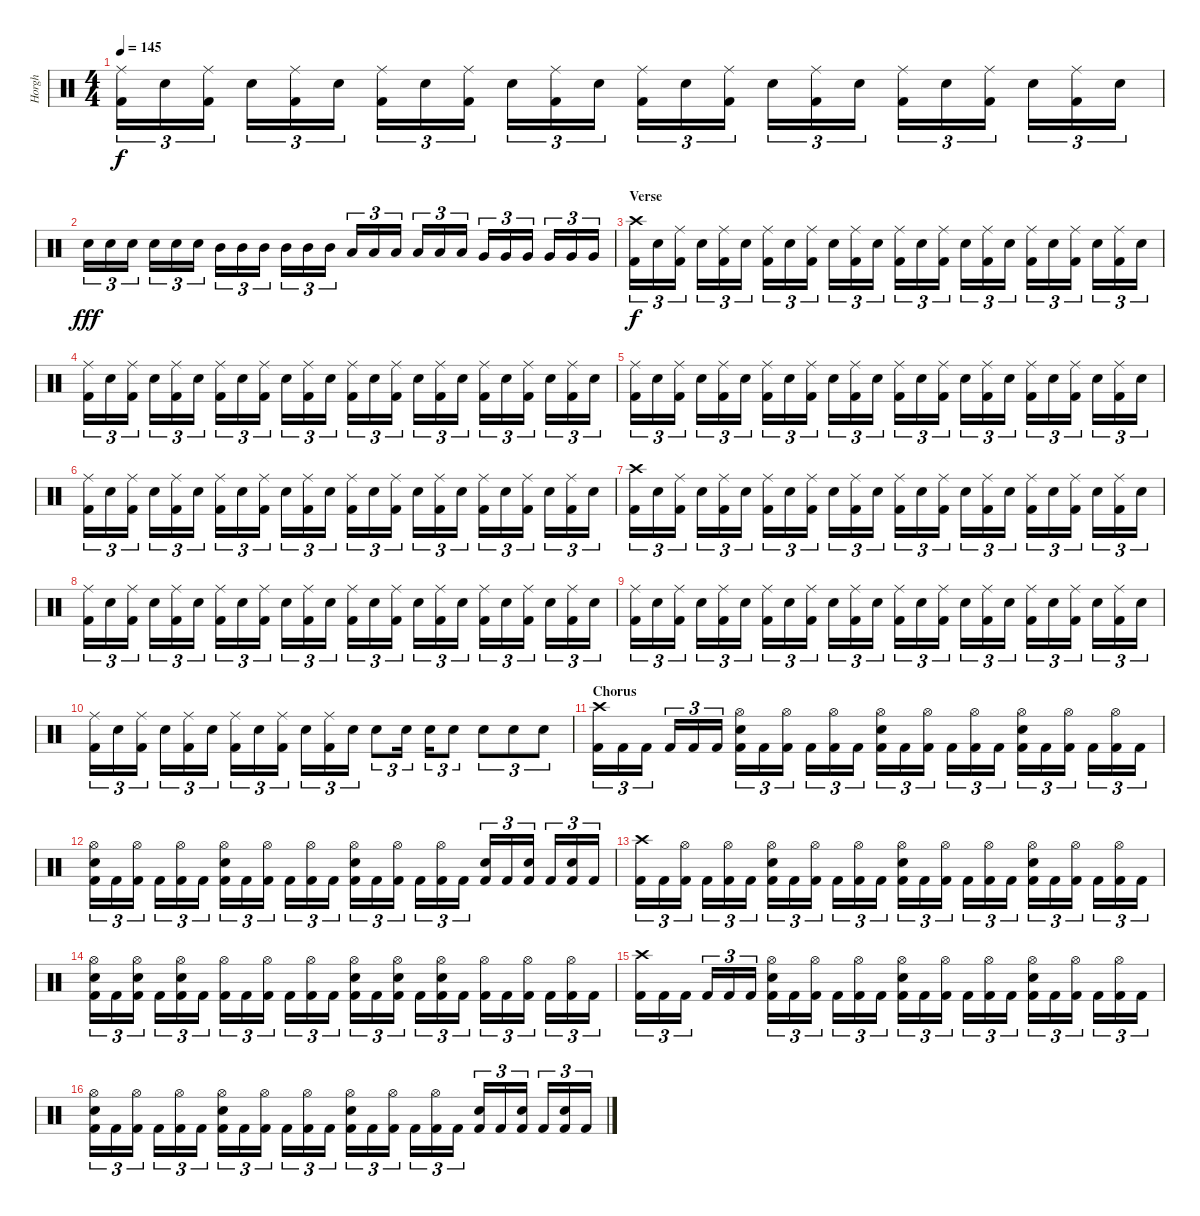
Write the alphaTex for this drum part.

\track ("Horgh" "Horgh") {instrument percussion}
\staff {score}
\articulation defaults
\ts (4 4)
\tempo 145
\clef neutral
\ks c
("Ride (middle)" "Kick (hit) 2").16{tu (3 2) dy f} "Electric Snare (hit)".16{tu (3 2)} ("Ride (middle)" "Kick (hit) 2").16{tu (3 2)} "Electric Snare (hit)".16{tu (3 2)} ("Ride (middle)" "Kick (hit) 2").16{tu (3 2)} "Electric Snare (hit)".16{tu (3 2)} ("Ride (middle)" "Kick (hit) 2").16{tu (3 2)} "Electric Snare (hit)".16{tu (3 2)} ("Ride (middle)" "Kick (hit) 2").16{tu (3 2)} "Electric Snare (hit)".16{tu (3 2)} ("Ride (middle)" "Kick (hit) 2").16{tu (3 2)} "Electric Snare (hit)".16{tu (3 2)} ("Ride (middle)" "Kick (hit) 2").16{tu (3 2)} "Electric Snare (hit)".16{tu (3 2)} ("Ride (middle)" "Kick (hit) 2").16{tu (3 2)} "Electric Snare (hit)".16{tu (3 2)} ("Ride (middle)" "Kick (hit) 2").16{tu (3 2)} "Electric Snare (hit)".16{tu (3 2)} ("Ride (middle)" "Kick (hit) 2").16{tu (3 2)} "Electric Snare (hit)".16{tu (3 2)} ("Ride (middle)" "Kick (hit) 2").16{tu (3 2)} "Electric Snare (hit)".16{tu (3 2)} ("Ride (middle)" "Kick (hit) 2").16{tu (3 2)} "Electric Snare (hit)".16{tu (3 2)} |
"Electric Snare (hit)".16{tu (3 2) dy fff} "Electric Snare (hit)".16{tu (3 2)} "Electric Snare (hit)".16{tu (3 2)} "Electric Snare (hit)".16{tu (3 2)} "Electric Snare (hit)".16{tu (3 2)} "Electric Snare (hit)".16{tu (3 2)} "Mid Tom (hit)".16{tu (3 2)} "Mid Tom (hit)".16{tu (3 2)} "Mid Tom (hit)".16{tu (3 2)} "Mid Tom (hit)".16{tu (3 2)} "Mid Tom (hit)".16{tu (3 2)} "Mid Tom (hit)".16{tu (3 2)} "Low Tom (hit)".16{tu (3 2)} "Low Tom (hit)".16{tu (3 2)} "Low Tom (hit)".16{tu (3 2)} "Low Tom (hit)".16{tu (3 2)} "Low Tom (hit)".16{tu (3 2)} "Low Tom (hit)".16{tu (3 2)} "Very Low Tom (hit)".16{tu (3 2)} "Very Low Tom (hit)".16{tu (3 2)} "Very Low Tom (hit)".16{tu (3 2)} "Very Low Tom (hit)".16{tu (3 2)} "Very Low Tom (hit)".16{tu (3 2)} "Very Low Tom (hit)".16{tu (3 2)} |
\section ("" "Verse")
("Crash high (hit)" "Kick (hit) 2").16{tu (3 2) dy f} "Electric Snare (hit)".16{tu (3 2)} ("Ride (middle)" "Kick (hit) 2").16{tu (3 2)} "Electric Snare (hit)".16{tu (3 2)} ("Ride (middle)" "Kick (hit) 2").16{tu (3 2)} "Electric Snare (hit)".16{tu (3 2)} ("Ride (middle)" "Kick (hit) 2").16{tu (3 2)} "Electric Snare (hit)".16{tu (3 2)} ("Ride (middle)" "Kick (hit) 2").16{tu (3 2)} "Electric Snare (hit)".16{tu (3 2)} ("Ride (middle)" "Kick (hit) 2").16{tu (3 2)} "Electric Snare (hit)".16{tu (3 2)} ("Ride (middle)" "Kick (hit) 2").16{tu (3 2)} "Electric Snare (hit)".16{tu (3 2)} ("Ride (middle)" "Kick (hit) 2").16{tu (3 2)} "Electric Snare (hit)".16{tu (3 2)} ("Ride (middle)" "Kick (hit) 2").16{tu (3 2)} "Electric Snare (hit)".16{tu (3 2)} ("Ride (middle)" "Kick (hit) 2").16{tu (3 2)} "Electric Snare (hit)".16{tu (3 2)} ("Ride (middle)" "Kick (hit) 2").16{tu (3 2)} "Electric Snare (hit)".16{tu (3 2)} ("Ride (middle)" "Kick (hit) 2").16{tu (3 2)} "Electric Snare (hit)".16{tu (3 2)} |
("Ride (middle)" "Kick (hit) 2").16{tu (3 2)} "Electric Snare (hit)".16{tu (3 2)} ("Ride (middle)" "Kick (hit) 2").16{tu (3 2)} "Electric Snare (hit)".16{tu (3 2)} ("Ride (middle)" "Kick (hit) 2").16{tu (3 2)} "Electric Snare (hit)".16{tu (3 2)} ("Ride (middle)" "Kick (hit) 2").16{tu (3 2)} "Electric Snare (hit)".16{tu (3 2)} ("Ride (middle)" "Kick (hit) 2").16{tu (3 2)} "Electric Snare (hit)".16{tu (3 2)} ("Ride (middle)" "Kick (hit) 2").16{tu (3 2)} "Electric Snare (hit)".16{tu (3 2)} ("Ride (middle)" "Kick (hit) 2").16{tu (3 2)} "Electric Snare (hit)".16{tu (3 2)} ("Ride (middle)" "Kick (hit) 2").16{tu (3 2)} "Electric Snare (hit)".16{tu (3 2)} ("Ride (middle)" "Kick (hit) 2").16{tu (3 2)} "Electric Snare (hit)".16{tu (3 2)} ("Ride (middle)" "Kick (hit) 2").16{tu (3 2)} "Electric Snare (hit)".16{tu (3 2)} ("Ride (middle)" "Kick (hit) 2").16{tu (3 2)} "Electric Snare (hit)".16{tu (3 2)} ("Ride (middle)" "Kick (hit) 2").16{tu (3 2)} "Electric Snare (hit)".16{tu (3 2)} |
("Ride (middle)" "Kick (hit) 2").16{tu (3 2)} "Electric Snare (hit)".16{tu (3 2)} ("Ride (middle)" "Kick (hit) 2").16{tu (3 2)} "Electric Snare (hit)".16{tu (3 2)} ("Ride (middle)" "Kick (hit) 2").16{tu (3 2)} "Electric Snare (hit)".16{tu (3 2)} ("Ride (middle)" "Kick (hit) 2").16{tu (3 2)} "Electric Snare (hit)".16{tu (3 2)} ("Ride (middle)" "Kick (hit) 2").16{tu (3 2)} "Electric Snare (hit)".16{tu (3 2)} ("Ride (middle)" "Kick (hit) 2").16{tu (3 2)} "Electric Snare (hit)".16{tu (3 2)} ("Ride (middle)" "Kick (hit) 2").16{tu (3 2)} "Electric Snare (hit)".16{tu (3 2)} ("Ride (middle)" "Kick (hit) 2").16{tu (3 2)} "Electric Snare (hit)".16{tu (3 2)} ("Ride (middle)" "Kick (hit) 2").16{tu (3 2)} "Electric Snare (hit)".16{tu (3 2)} ("Ride (middle)" "Kick (hit) 2").16{tu (3 2)} "Electric Snare (hit)".16{tu (3 2)} ("Ride (middle)" "Kick (hit) 2").16{tu (3 2)} "Electric Snare (hit)".16{tu (3 2)} ("Ride (middle)" "Kick (hit) 2").16{tu (3 2)} "Electric Snare (hit)".16{tu (3 2)} |
("Ride (middle)" "Kick (hit) 2").16{tu (3 2)} "Electric Snare (hit)".16{tu (3 2)} ("Ride (middle)" "Kick (hit) 2").16{tu (3 2)} "Electric Snare (hit)".16{tu (3 2)} ("Ride (middle)" "Kick (hit) 2").16{tu (3 2)} "Electric Snare (hit)".16{tu (3 2)} ("Ride (middle)" "Kick (hit) 2").16{tu (3 2)} "Electric Snare (hit)".16{tu (3 2)} ("Ride (middle)" "Kick (hit) 2").16{tu (3 2)} "Electric Snare (hit)".16{tu (3 2)} ("Ride (middle)" "Kick (hit) 2").16{tu (3 2)} "Electric Snare (hit)".16{tu (3 2)} ("Ride (middle)" "Kick (hit) 2").16{tu (3 2)} "Electric Snare (hit)".16{tu (3 2)} ("Ride (middle)" "Kick (hit) 2").16{tu (3 2)} "Electric Snare (hit)".16{tu (3 2)} ("Ride (middle)" "Kick (hit) 2").16{tu (3 2)} "Electric Snare (hit)".16{tu (3 2)} ("Ride (middle)" "Kick (hit) 2").16{tu (3 2)} "Electric Snare (hit)".16{tu (3 2)} ("Ride (middle)" "Kick (hit) 2").16{tu (3 2)} "Electric Snare (hit)".16{tu (3 2)} ("Ride (middle)" "Kick (hit) 2").16{tu (3 2)} "Electric Snare (hit)".16{tu (3 2)} |
("Crash high (hit)" "Kick (hit) 2").16{tu (3 2)} "Electric Snare (hit)".16{tu (3 2)} ("Ride (middle)" "Kick (hit) 2").16{tu (3 2)} "Electric Snare (hit)".16{tu (3 2)} ("Ride (middle)" "Kick (hit) 2").16{tu (3 2)} "Electric Snare (hit)".16{tu (3 2)} ("Ride (middle)" "Kick (hit) 2").16{tu (3 2)} "Electric Snare (hit)".16{tu (3 2)} ("Ride (middle)" "Kick (hit) 2").16{tu (3 2)} "Electric Snare (hit)".16{tu (3 2)} ("Ride (middle)" "Kick (hit) 2").16{tu (3 2)} "Electric Snare (hit)".16{tu (3 2)} ("Ride (middle)" "Kick (hit) 2").16{tu (3 2)} "Electric Snare (hit)".16{tu (3 2)} ("Ride (middle)" "Kick (hit) 2").16{tu (3 2)} "Electric Snare (hit)".16{tu (3 2)} ("Ride (middle)" "Kick (hit) 2").16{tu (3 2)} "Electric Snare (hit)".16{tu (3 2)} ("Ride (middle)" "Kick (hit) 2").16{tu (3 2)} "Electric Snare (hit)".16{tu (3 2)} ("Ride (middle)" "Kick (hit) 2").16{tu (3 2)} "Electric Snare (hit)".16{tu (3 2)} ("Ride (middle)" "Kick (hit) 2").16{tu (3 2)} "Electric Snare (hit)".16{tu (3 2)} |
("Ride (middle)" "Kick (hit) 2").16{tu (3 2)} "Electric Snare (hit)".16{tu (3 2)} ("Ride (middle)" "Kick (hit) 2").16{tu (3 2)} "Electric Snare (hit)".16{tu (3 2)} ("Ride (middle)" "Kick (hit) 2").16{tu (3 2)} "Electric Snare (hit)".16{tu (3 2)} ("Ride (middle)" "Kick (hit) 2").16{tu (3 2)} "Electric Snare (hit)".16{tu (3 2)} ("Ride (middle)" "Kick (hit) 2").16{tu (3 2)} "Electric Snare (hit)".16{tu (3 2)} ("Ride (middle)" "Kick (hit) 2").16{tu (3 2)} "Electric Snare (hit)".16{tu (3 2)} ("Ride (middle)" "Kick (hit) 2").16{tu (3 2)} "Electric Snare (hit)".16{tu (3 2)} ("Ride (middle)" "Kick (hit) 2").16{tu (3 2)} "Electric Snare (hit)".16{tu (3 2)} ("Ride (middle)" "Kick (hit) 2").16{tu (3 2)} "Electric Snare (hit)".16{tu (3 2)} ("Ride (middle)" "Kick (hit) 2").16{tu (3 2)} "Electric Snare (hit)".16{tu (3 2)} ("Ride (middle)" "Kick (hit) 2").16{tu (3 2)} "Electric Snare (hit)".16{tu (3 2)} ("Ride (middle)" "Kick (hit) 2").16{tu (3 2)} "Electric Snare (hit)".16{tu (3 2)} |
("Ride (middle)" "Kick (hit) 2").16{tu (3 2)} "Electric Snare (hit)".16{tu (3 2)} ("Ride (middle)" "Kick (hit) 2").16{tu (3 2)} "Electric Snare (hit)".16{tu (3 2)} ("Ride (middle)" "Kick (hit) 2").16{tu (3 2)} "Electric Snare (hit)".16{tu (3 2)} ("Ride (middle)" "Kick (hit) 2").16{tu (3 2)} "Electric Snare (hit)".16{tu (3 2)} ("Ride (middle)" "Kick (hit) 2").16{tu (3 2)} "Electric Snare (hit)".16{tu (3 2)} ("Ride (middle)" "Kick (hit) 2").16{tu (3 2)} "Electric Snare (hit)".16{tu (3 2)} ("Ride (middle)" "Kick (hit) 2").16{tu (3 2)} "Electric Snare (hit)".16{tu (3 2)} ("Ride (middle)" "Kick (hit) 2").16{tu (3 2)} "Electric Snare (hit)".16{tu (3 2)} ("Ride (middle)" "Kick (hit) 2").16{tu (3 2)} "Electric Snare (hit)".16{tu (3 2)} ("Ride (middle)" "Kick (hit) 2").16{tu (3 2)} "Electric Snare (hit)".16{tu (3 2)} ("Ride (middle)" "Kick (hit) 2").16{tu (3 2)} "Electric Snare (hit)".16{tu (3 2)} ("Ride (middle)" "Kick (hit) 2").16{tu (3 2)} "Electric Snare (hit)".16{tu (3 2)} |
("Ride (middle)" "Kick (hit) 2").16{tu (3 2)} "Electric Snare (hit)".16{tu (3 2)} ("Ride (middle)" "Kick (hit) 2").16{tu (3 2)} "Electric Snare (hit)".16{tu (3 2)} ("Ride (middle)" "Kick (hit) 2").16{tu (3 2)} "Electric Snare (hit)".16{tu (3 2)} ("Ride (middle)" "Kick (hit) 2").16{tu (3 2)} "Electric Snare (hit)".16{tu (3 2)} ("Ride (middle)" "Kick (hit) 2").16{tu (3 2)} "Electric Snare (hit)".16{tu (3 2)} ("Ride (middle)" "Kick (hit) 2").16{tu (3 2)} "Electric Snare (hit)".16{tu (3 2)} "Electric Snare (hit)".8{tu (3 2)} "Electric Snare (hit)".16{tu (3 2)} "Electric Snare (hit)".16{tu (3 2)} "Electric Snare (hit)".8{tu (3 2)} "Electric Snare (hit)".8{tu (3 2)} "Electric Snare (hit)".8{tu (3 2)} "Electric Snare (hit)".8{tu (3 2)} |
\section ("" "Chorus")
("Crash high (hit)" "Kick (hit) 2").16{tu (3 2)} "Kick (hit) 2".16{tu (3 2)} "Kick (hit) 2".16{tu (3 2)} "Kick (hit) 2".16{tu (3 2)} "Kick (hit) 2".16{tu (3 2)} "Kick (hit) 2".16{tu (3 2)} ("Hi-Hat (open)" "Electric Snare (hit)" "Kick (hit) 2").16{tu (3 2)} "Kick (hit) 2".16{tu (3 2)} ("Hi-Hat (open)" "Kick (hit) 2").16{tu (3 2)} "Kick (hit) 2".16{tu (3 2)} ("Hi-Hat (open)" "Kick (hit) 2").16{tu (3 2)} "Kick (hit) 2".16{tu (3 2)} ("Hi-Hat (open)" "Electric Snare (hit)" "Kick (hit) 2").16{tu (3 2)} "Kick (hit) 2".16{tu (3 2)} ("Hi-Hat (open)" "Kick (hit) 2").16{tu (3 2)} "Kick (hit) 2".16{tu (3 2)} ("Hi-Hat (open)" "Kick (hit) 2").16{tu (3 2)} "Kick (hit) 2".16{tu (3 2)} ("Hi-Hat (open)" "Electric Snare (hit)" "Kick (hit) 2").16{tu (3 2)} "Kick (hit) 2".16{tu (3 2)} ("Hi-Hat (open)" "Kick (hit) 2").16{tu (3 2)} "Kick (hit) 2".16{tu (3 2)} ("Hi-Hat (open)" "Kick (hit) 2").16{tu (3 2)} "Kick (hit) 2".16{tu (3 2)} |
("Hi-Hat (open)" "Electric Snare (hit)" "Kick (hit) 2").16{tu (3 2)} "Kick (hit) 2".16{tu (3 2)} ("Hi-Hat (open)" "Kick (hit) 2").16{tu (3 2)} "Kick (hit) 2".16{tu (3 2)} ("Hi-Hat (open)" "Kick (hit) 2").16{tu (3 2)} "Kick (hit) 2".16{tu (3 2)} ("Hi-Hat (open)" "Electric Snare (hit)" "Kick (hit) 2").16{tu (3 2)} "Kick (hit) 2".16{tu (3 2)} ("Hi-Hat (open)" "Kick (hit) 2").16{tu (3 2)} "Kick (hit) 2".16{tu (3 2)} ("Hi-Hat (open)" "Kick (hit) 2").16{tu (3 2)} "Kick (hit) 2".16{tu (3 2)} ("Hi-Hat (open)" "Electric Snare (hit)" "Kick (hit) 2").16{tu (3 2)} "Kick (hit) 2".16{tu (3 2)} ("Hi-Hat (open)" "Kick (hit) 2").16{tu (3 2)} "Kick (hit) 2".16{tu (3 2)} ("Hi-Hat (open)" "Kick (hit) 2").16{tu (3 2)} "Kick (hit) 2".16{tu (3 2)} ("Electric Snare (hit)" "Kick (hit) 2").16{tu (3 2)} "Kick (hit) 2".16{tu (3 2)} ("Electric Snare (hit)" "Kick (hit) 2").16{tu (3 2)} "Kick (hit) 2".16{tu (3 2)} ("Electric Snare (hit)" "Kick (hit) 2").16{tu (3 2)} "Kick (hit) 2".16{tu (3 2)} |
("Crash high (hit)" "Kick (hit) 2").16{tu (3 2)} "Kick (hit) 2".16{tu (3 2)} ("Hi-Hat (open)" "Kick (hit) 2").16{tu (3 2)} "Kick (hit) 2".16{tu (3 2)} ("Hi-Hat (open)" "Kick (hit) 2").16{tu (3 2)} "Kick (hit) 2".16{tu (3 2)} ("Hi-Hat (open)" "Electric Snare (hit)" "Kick (hit) 2").16{tu (3 2)} "Kick (hit) 2".16{tu (3 2)} ("Hi-Hat (open)" "Kick (hit) 2").16{tu (3 2)} "Kick (hit) 2".16{tu (3 2)} ("Hi-Hat (open)" "Kick (hit) 2").16{tu (3 2)} "Kick (hit) 2".16{tu (3 2)} ("Hi-Hat (open)" "Electric Snare (hit)" "Kick (hit) 2").16{tu (3 2)} "Kick (hit) 2".16{tu (3 2)} ("Hi-Hat (open)" "Kick (hit) 2").16{tu (3 2)} "Kick (hit) 2".16{tu (3 2)} ("Hi-Hat (open)" "Kick (hit) 2").16{tu (3 2)} "Kick (hit) 2".16{tu (3 2)} ("Hi-Hat (open)" "Electric Snare (hit)" "Kick (hit) 2").16{tu (3 2)} "Kick (hit) 2".16{tu (3 2)} ("Hi-Hat (open)" "Kick (hit) 2").16{tu (3 2)} "Kick (hit) 2".16{tu (3 2)} ("Hi-Hat (open)" "Kick (hit) 2").16{tu (3 2)} "Kick (hit) 2".16{tu (3 2)} |
("Hi-Hat (open)" "Electric Snare (hit)" "Kick (hit) 2").16{tu (3 2)} "Kick (hit) 2".16{tu (3 2)} ("Hi-Hat (open)" "Electric Snare (hit)" "Kick (hit) 2").16{tu (3 2)} "Kick (hit) 2".16{tu (3 2)} ("Hi-Hat (open)" "Electric Snare (hit)" "Kick (hit) 2").16{tu (3 2)} "Kick (hit) 2".16{tu (3 2)} ("Hi-Hat (open)" "Kick (hit) 2").16{tu (3 2)} "Kick (hit) 2".16{tu (3 2)} ("Hi-Hat (open)" "Kick (hit) 2").16{tu (3 2)} "Kick (hit) 2".16{tu (3 2)} ("Hi-Hat (open)" "Kick (hit) 2").16{tu (3 2)} "Kick (hit) 2".16{tu (3 2)} ("Hi-Hat (open)" "Electric Snare (hit)" "Kick (hit) 2").16{tu (3 2)} "Kick (hit) 2".16{tu (3 2)} ("Hi-Hat (open)" "Electric Snare (hit)" "Kick (hit) 2").16{tu (3 2)} "Kick (hit) 2".16{tu (3 2)} ("Hi-Hat (open)" "Electric Snare (hit)" "Kick (hit) 2").16{tu (3 2)} "Kick (hit) 2".16{tu (3 2)} ("Hi-Hat (open)" "Kick (hit) 2").16{tu (3 2)} "Kick (hit) 2".16{tu (3 2)} ("Hi-Hat (open)" "Kick (hit) 2").16{tu (3 2)} "Kick (hit) 2".16{tu (3 2)} ("Hi-Hat (open)" "Kick (hit) 2").16{tu (3 2)} "Kick (hit) 2".16{tu (3 2)} |
("Crash high (hit)" "Kick (hit) 2").16{tu (3 2)} "Kick (hit) 2".16{tu (3 2)} "Kick (hit) 2".16{tu (3 2)} "Kick (hit) 2".16{tu (3 2)} "Kick (hit) 2".16{tu (3 2)} "Kick (hit) 2".16{tu (3 2)} ("Hi-Hat (open)" "Electric Snare (hit)" "Kick (hit) 2").16{tu (3 2)} "Kick (hit) 2".16{tu (3 2)} ("Hi-Hat (open)" "Kick (hit) 2").16{tu (3 2)} "Kick (hit) 2".16{tu (3 2)} ("Hi-Hat (open)" "Kick (hit) 2").16{tu (3 2)} "Kick (hit) 2".16{tu (3 2)} ("Hi-Hat (open)" "Electric Snare (hit)" "Kick (hit) 2").16{tu (3 2)} "Kick (hit) 2".16{tu (3 2)} ("Hi-Hat (open)" "Kick (hit) 2").16{tu (3 2)} "Kick (hit) 2".16{tu (3 2)} ("Hi-Hat (open)" "Kick (hit) 2").16{tu (3 2)} "Kick (hit) 2".16{tu (3 2)} ("Hi-Hat (open)" "Electric Snare (hit)" "Kick (hit) 2").16{tu (3 2)} "Kick (hit) 2".16{tu (3 2)} ("Hi-Hat (open)" "Kick (hit) 2").16{tu (3 2)} "Kick (hit) 2".16{tu (3 2)} ("Hi-Hat (open)" "Kick (hit) 2").16{tu (3 2)} "Kick (hit) 2".16{tu (3 2)} |
("Hi-Hat (open)" "Electric Snare (hit)" "Kick (hit) 2").16{tu (3 2)} "Kick (hit) 2".16{tu (3 2)} ("Hi-Hat (open)" "Kick (hit) 2").16{tu (3 2)} "Kick (hit) 2".16{tu (3 2)} ("Hi-Hat (open)" "Kick (hit) 2").16{tu (3 2)} "Kick (hit) 2".16{tu (3 2)} ("Hi-Hat (open)" "Electric Snare (hit)" "Kick (hit) 2").16{tu (3 2)} "Kick (hit) 2".16{tu (3 2)} ("Hi-Hat (open)" "Kick (hit) 2").16{tu (3 2)} "Kick (hit) 2".16{tu (3 2)} ("Hi-Hat (open)" "Kick (hit) 2").16{tu (3 2)} "Kick (hit) 2".16{tu (3 2)} ("Hi-Hat (open)" "Electric Snare (hit)" "Kick (hit) 2").16{tu (3 2)} "Kick (hit) 2".16{tu (3 2)} ("Hi-Hat (open)" "Kick (hit) 2").16{tu (3 2)} "Kick (hit) 2".16{tu (3 2)} ("Hi-Hat (open)" "Kick (hit) 2").16{tu (3 2)} "Kick (hit) 2".16{tu (3 2)} ("Electric Snare (hit)" "Kick (hit) 2").16{tu (3 2)} "Kick (hit) 2".16{tu (3 2)} ("Electric Snare (hit)" "Kick (hit) 2").16{tu (3 2)} "Kick (hit) 2".16{tu (3 2)} ("Electric Snare (hit)" "Kick (hit) 2").16{tu (3 2)} "Kick (hit) 2".16{tu (3 2)}
